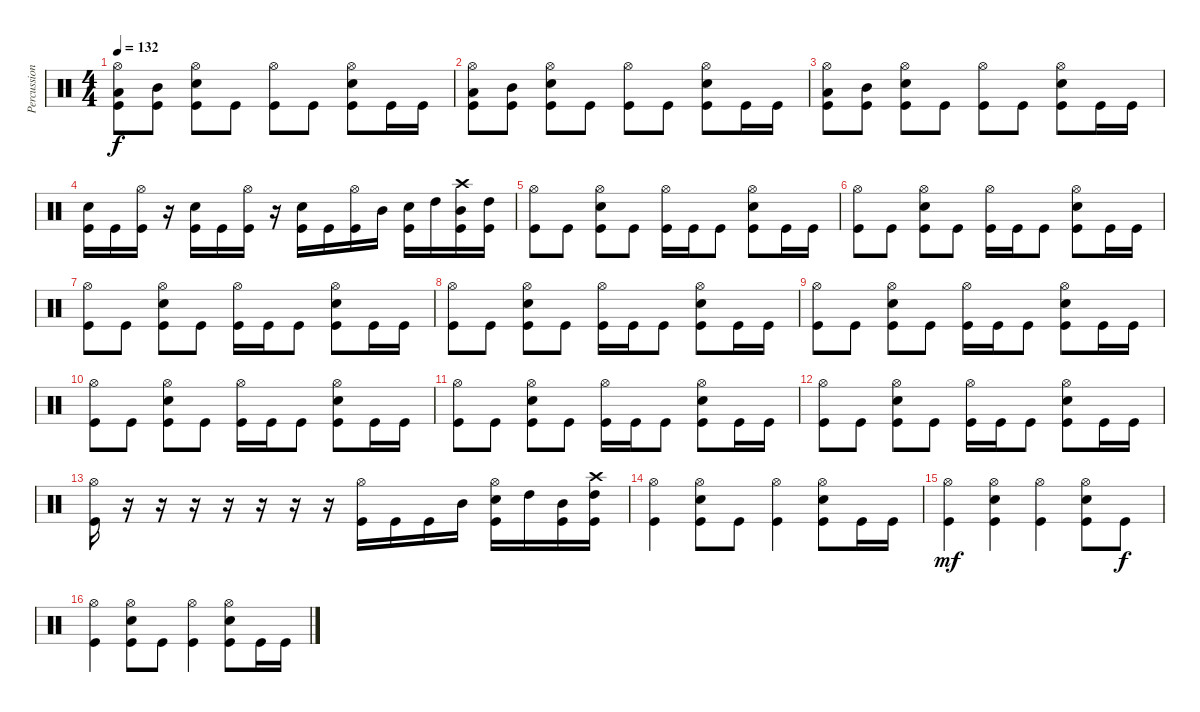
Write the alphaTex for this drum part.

\track ("Percussion" "Percussion") {instrument percussion}
\staff {score}
\articulation defaults
\ts (4 4)
\tempo 132
\clef neutral
\ks c
("Hi-Hat (open)" "Low Tom (hit)" "Kick (hit)").8{dy f} ("Mid Tom (hit)" "Kick (hit)").8 ("Hi-Hat (open)" "Electric Snare (hit)" "Kick (hit)").8 "Kick (hit)".8 ("Hi-Hat (open)" "Kick (hit)").8 "Kick (hit)".8 ("Hi-Hat (open)" "Electric Snare (hit)" "Kick (hit)").8 "Kick (hit)".16 "Kick (hit)".16 |
("Hi-Hat (open)" "Low Tom (hit)" "Kick (hit)").8 ("Mid Tom (hit)" "Kick (hit)").8 ("Hi-Hat (open)" "Electric Snare (hit)" "Kick (hit)").8 "Kick (hit)".8 ("Hi-Hat (open)" "Kick (hit)").8 "Kick (hit)".8 ("Hi-Hat (open)" "Electric Snare (hit)" "Kick (hit)").8 "Kick (hit)".16 "Kick (hit)".16 |
("Hi-Hat (open)" "Low Tom (hit)" "Kick (hit)").8 ("Mid Tom (hit)" "Kick (hit)").8 ("Hi-Hat (open)" "Electric Snare (hit)" "Kick (hit)").8 "Kick (hit)".8 ("Hi-Hat (open)" "Kick (hit)").8 "Kick (hit)".8 ("Hi-Hat (open)" "Electric Snare (hit)" "Kick (hit)").8 "Kick (hit)".16 "Kick (hit)".16 |
("Electric Snare (hit)" "Kick (hit)").16 "Kick (hit)".16 ("Hi-Hat (open)" "Kick (hit)").16 r.16 ("Electric Snare (hit)" "Kick (hit)").16 "Kick (hit)".16 ("Hi-Hat (open)" "Kick (hit)").16 r.16 ("Electric Snare (hit)" "Kick (hit)").16 "Kick (hit)".16 ("Hi-Hat (open)" "Kick (hit)").16 "Mid Tom (hit)".16 ("Electric Snare (hit)" "Kick (hit)").16 "High Tom (hit)".16 ("Crash high (hit)" "Mid Tom (hit)" "Kick (hit)").16 ("High Tom (hit)" "Kick (hit)").16 |
("Hi-Hat (open)" "Kick (hit)").8 "Kick (hit)".8 ("Hi-Hat (open)" "Electric Snare (hit)" "Kick (hit)").8 "Kick (hit)".8 ("Hi-Hat (open)" "Kick (hit)").16 "Kick (hit)".16 "Kick (hit)".8 ("Hi-Hat (open)" "Electric Snare (hit)" "Kick (hit)").8 "Kick (hit)".16 "Kick (hit)".16 |
("Hi-Hat (open)" "Kick (hit)").8 "Kick (hit)".8 ("Hi-Hat (open)" "Electric Snare (hit)" "Kick (hit)").8 "Kick (hit)".8 ("Hi-Hat (open)" "Kick (hit)").16 "Kick (hit)".16 "Kick (hit)".8 ("Hi-Hat (open)" "Electric Snare (hit)" "Kick (hit)").8 "Kick (hit)".16 "Kick (hit)".16 |
("Hi-Hat (open)" "Kick (hit)").8 "Kick (hit)".8 ("Hi-Hat (open)" "Electric Snare (hit)" "Kick (hit)").8 "Kick (hit)".8 ("Hi-Hat (open)" "Kick (hit)").16 "Kick (hit)".16 "Kick (hit)".8 ("Hi-Hat (open)" "Electric Snare (hit)" "Kick (hit)").8 "Kick (hit)".16 "Kick (hit)".16 |
("Hi-Hat (open)" "Kick (hit)").8 "Kick (hit)".8 ("Hi-Hat (open)" "Electric Snare (hit)" "Kick (hit)").8 "Kick (hit)".8 ("Hi-Hat (open)" "Kick (hit)").16 "Kick (hit)".16 "Kick (hit)".8 ("Hi-Hat (open)" "Electric Snare (hit)" "Kick (hit)").8 "Kick (hit)".16 "Kick (hit)".16 |
("Hi-Hat (open)" "Kick (hit)").8 "Kick (hit)".8 ("Hi-Hat (open)" "Electric Snare (hit)" "Kick (hit)").8 "Kick (hit)".8 ("Hi-Hat (open)" "Kick (hit)").16 "Kick (hit)".16 "Kick (hit)".8 ("Hi-Hat (open)" "Electric Snare (hit)" "Kick (hit)").8 "Kick (hit)".16 "Kick (hit)".16 |
("Hi-Hat (open)" "Kick (hit)").8 "Kick (hit)".8 ("Hi-Hat (open)" "Electric Snare (hit)" "Kick (hit)").8 "Kick (hit)".8 ("Hi-Hat (open)" "Kick (hit)").16 "Kick (hit)".16 "Kick (hit)".8 ("Hi-Hat (open)" "Electric Snare (hit)" "Kick (hit)").8 "Kick (hit)".16 "Kick (hit)".16 |
("Hi-Hat (open)" "Kick (hit)").8 "Kick (hit)".8 ("Hi-Hat (open)" "Electric Snare (hit)" "Kick (hit)").8 "Kick (hit)".8 ("Hi-Hat (open)" "Kick (hit)").16 "Kick (hit)".16 "Kick (hit)".8 ("Hi-Hat (open)" "Electric Snare (hit)" "Kick (hit)").8 "Kick (hit)".16 "Kick (hit)".16 |
("Hi-Hat (open)" "Kick (hit)").8 "Kick (hit)".8 ("Hi-Hat (open)" "Electric Snare (hit)" "Kick (hit)").8 "Kick (hit)".8 ("Hi-Hat (open)" "Kick (hit)").16 "Kick (hit)".16 "Kick (hit)".8 ("Hi-Hat (open)" "Electric Snare (hit)" "Kick (hit)").8 "Kick (hit)".16 "Kick (hit)".16 |
("Hi-Hat (open)" "Kick (hit)").16 r.16 r.16 r.16 r.16 r.16 r.16 r.16 ("Hi-Hat (open)" "Kick (hit)").16 "Kick (hit)".16 "Kick (hit)".16 "Mid Tom (hit)".16 ("Hi-Hat (open)" "Electric Snare (hit)" "Kick (hit)").16 "High Tom (hit)".16 ("Mid Tom (hit)" "Kick (hit)").16 ("Crash high (hit)" "High Tom (hit)" "Kick (hit)").16 |
("Hi-Hat (open)" "Kick (hit)").4 ("Hi-Hat (open)" "Electric Snare (hit)" "Kick (hit)").8 "Kick (hit)".8 ("Hi-Hat (open)" "Kick (hit)").4 ("Hi-Hat (open)" "Electric Snare (hit)" "Kick (hit)").8 "Kick (hit)".16 "Kick (hit)".16 |
("Hi-Hat (open)" "Kick (hit)").4{dy mf} ("Hi-Hat (open)" "Electric Snare (hit)" "Kick (hit)").4 ("Hi-Hat (open)" "Kick (hit)").4 ("Hi-Hat (open)" "Electric Snare (hit)" "Kick (hit)").8 "Kick (hit)".8{dy f} |
("Hi-Hat (open)" "Kick (hit)").4 ("Hi-Hat (open)" "Electric Snare (hit)" "Kick (hit)").8 "Kick (hit)".8 ("Hi-Hat (open)" "Kick (hit)").4 ("Hi-Hat (open)" "Electric Snare (hit)" "Kick (hit)").8 "Kick (hit)".16 "Kick (hit)".16
